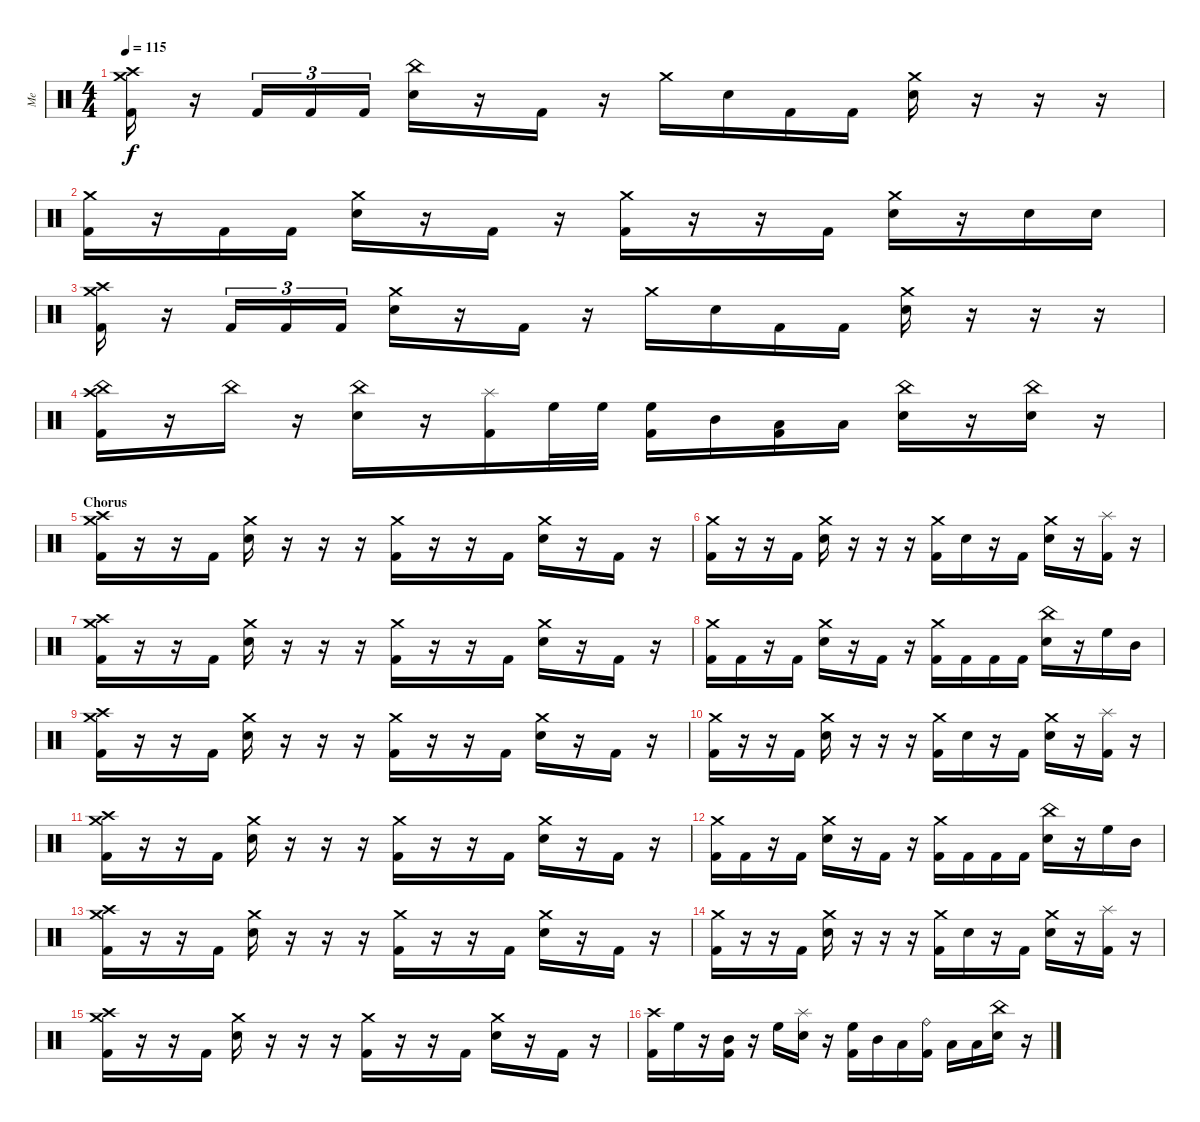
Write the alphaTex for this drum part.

\track ("Me" "Me") {instrument percussion}
\staff {score}
\articulation defaults
\ts (4 4)
\tempo 115
\clef neutral
\ks c
("Crash high (hit)" "Crash medium (hit)" "Kick (hit) 2").16{dy f} r.16 "Kick (hit) 2".16{tu (3 2)} "Kick (hit) 2".16{tu (3 2)} "Kick (hit) 2".16{tu (3 2)} ("China (hit)" "Electric Snare (hit)").16 r.16 "Kick (hit) 2".16 r.16 "Crash medium (hit)".16 "Electric Snare (hit)".16 "Kick (hit) 2".16 "Kick (hit) 2".16 ("Crash medium (hit)" "Electric Snare (hit)").16 r.16 r.16 r.16 |
("Crash medium (hit)" "Kick (hit) 2").16 r.16 "Kick (hit) 2".16 "Kick (hit) 2".16 ("Crash medium (hit)" "Electric Snare (hit)").16 r.16 "Kick (hit) 2".16 r.16 ("Crash medium (hit)" "Kick (hit) 2").16 r.16 r.16 "Kick (hit) 2".16 ("Crash medium (hit)" "Electric Snare (hit)").16 r.16 "Electric Snare (hit)".16 "Electric Snare (hit)".16 |
("Crash high (hit)" "Crash medium (hit)" "Kick (hit) 2").16 r.16 "Kick (hit) 2".16{tu (3 2)} "Kick (hit) 2".16{tu (3 2)} "Kick (hit) 2".16{tu (3 2)} ("Crash medium (hit)" "Electric Snare (hit)").16 r.16 "Kick (hit) 2".16 r.16 "Crash medium (hit)".16 "Electric Snare (hit)".16 "Kick (hit) 2".16 "Kick (hit) 2".16 ("Crash medium (hit)" "Electric Snare (hit)").16 r.16 r.16 r.16 |
("China (hit)" "Crash high (hit)" "Kick (hit) 2").16 r.16 "China (hit)".16 r.16 ("China (hit)" "Electric Snare (hit)").16 r.16 ("Splash (hit)" "Kick (hit) 2").16 "High Floor Tom (hit)".32 "High Floor Tom (hit)".32 ("High Floor Tom (hit)" "Kick (hit) 2").16 "Mid Tom (hit)".16 ("Low Tom (hit)" "Kick (hit) 2").16 "Low Tom (hit)".16 ("China (hit)" "Electric Snare (hit)").16 r.16 ("China (hit)" "Electric Snare (hit)").16 r.16 |
\section ("" "Chorus")
("Crash high (hit)" "Crash medium (hit)" "Kick (hit) 2").16 r.16 r.16 "Kick (hit) 2".16 ("Crash medium (hit)" "Electric Snare (hit)").16 r.16 r.16 r.16 ("Crash medium (hit)" "Kick (hit) 2").16 r.16 r.16 "Kick (hit) 2".16 ("Crash medium (hit)" "Electric Snare (hit)").16 r.16 "Kick (hit) 2".16 r.16 |
("Crash medium (hit)" "Kick (hit) 2").16 r.16 r.16 "Kick (hit) 2".16 ("Crash medium (hit)" "Electric Snare (hit)").16 r.16 r.16 r.16 ("Crash medium (hit)" "Kick (hit) 2").16 "Electric Snare (hit)".16 r.16 "Kick (hit) 2".16 ("Crash medium (hit)" "Electric Snare (hit)").16 r.16 ("Splash (hit)" "Kick (hit) 2").16 r.16 |
("Crash high (hit)" "Crash medium (hit)" "Kick (hit) 2").16 r.16 r.16 "Kick (hit) 2".16 ("Crash medium (hit)" "Electric Snare (hit)").16 r.16 r.16 r.16 ("Crash medium (hit)" "Kick (hit) 2").16 r.16 r.16 "Kick (hit) 2".16 ("Crash medium (hit)" "Electric Snare (hit)").16 r.16 "Kick (hit) 2".16 r.16 |
("Crash medium (hit)" "Kick (hit) 2").16 "Kick (hit) 2".16 r.16 "Kick (hit) 2".16 ("Crash medium (hit)" "Electric Snare (hit)").16 r.16 "Kick (hit) 2".16 r.16 ("Crash medium (hit)" "Kick (hit) 2").16 "Kick (hit) 2".16 "Kick (hit) 2".16 "Kick (hit) 2".16 ("China (hit)" "Electric Snare (hit)").16 r.16 "High Floor Tom (hit)".16 "Mid Tom (hit)".16 |
("Crash high (hit)" "Crash medium (hit)" "Kick (hit) 2").16 r.16 r.16 "Kick (hit) 2".16 ("Crash medium (hit)" "Electric Snare (hit)").16 r.16 r.16 r.16 ("Crash medium (hit)" "Kick (hit) 2").16 r.16 r.16 "Kick (hit) 2".16 ("Crash medium (hit)" "Electric Snare (hit)").16 r.16 "Kick (hit) 2".16 r.16 |
("Crash medium (hit)" "Kick (hit) 2").16 r.16 r.16 "Kick (hit) 2".16 ("Crash medium (hit)" "Electric Snare (hit)").16 r.16 r.16 r.16 ("Crash medium (hit)" "Kick (hit) 2").16 "Electric Snare (hit)".16 r.16 "Kick (hit) 2".16 ("Crash medium (hit)" "Electric Snare (hit)").16 r.16 ("Splash (hit)" "Kick (hit) 2").16 r.16 |
("Crash high (hit)" "Crash medium (hit)" "Kick (hit) 2").16 r.16 r.16 "Kick (hit) 2".16 ("Crash medium (hit)" "Electric Snare (hit)").16 r.16 r.16 r.16 ("Crash medium (hit)" "Kick (hit) 2").16 r.16 r.16 "Kick (hit) 2".16 ("Crash medium (hit)" "Electric Snare (hit)").16 r.16 "Kick (hit) 2".16 r.16 |
("Crash medium (hit)" "Kick (hit) 2").16 "Kick (hit) 2".16 r.16 "Kick (hit) 2".16 ("Crash medium (hit)" "Electric Snare (hit)").16 r.16 "Kick (hit) 2".16 r.16 ("Crash medium (hit)" "Kick (hit) 2").16 "Kick (hit) 2".16 "Kick (hit) 2".16 "Kick (hit) 2".16 ("China (hit)" "Electric Snare (hit)").16 r.16 "High Floor Tom (hit)".16 "Mid Tom (hit)".16 |
("Crash high (hit)" "Crash medium (hit)" "Kick (hit) 2").16 r.16 r.16 "Kick (hit) 2".16 ("Crash medium (hit)" "Electric Snare (hit)").16 r.16 r.16 r.16 ("Crash medium (hit)" "Kick (hit) 2").16 r.16 r.16 "Kick (hit) 2".16 ("Crash medium (hit)" "Electric Snare (hit)").16 r.16 "Kick (hit) 2".16 r.16 |
("Crash medium (hit)" "Kick (hit) 2").16 r.16 r.16 "Kick (hit) 2".16 ("Crash medium (hit)" "Electric Snare (hit)").16 r.16 r.16 r.16 ("Crash medium (hit)" "Kick (hit) 2").16 "Electric Snare (hit)".16 r.16 "Kick (hit) 2".16 ("Crash medium (hit)" "Electric Snare (hit)").16 r.16 ("Splash (hit)" "Kick (hit) 2").16 r.16 |
("Crash high (hit)" "Crash medium (hit)" "Kick (hit) 2").16 r.16 r.16 "Kick (hit) 2".16 ("Crash medium (hit)" "Electric Snare (hit)").16 r.16 r.16 r.16 ("Crash medium (hit)" "Kick (hit) 2").16 r.16 r.16 "Kick (hit) 2".16 ("Crash medium (hit)" "Electric Snare (hit)").16 r.16 "Kick (hit) 2".16 r.16 |
("Crash high (hit)" "Kick (hit) 2").16 "High Floor Tom (hit)".16 r.16 ("Mid Tom (hit)" "Kick (hit) 2").16 r.16 "High Floor Tom (hit)".16 ("Splash (hit)" "Electric Snare (hit)").16 r.16 ("High Floor Tom (hit)" "Kick (hit) 2").16 "Mid Tom (hit)".16 "Low Tom (hit)".16 ("Ride (bell)" "Kick (hit) 2").16 "Low Tom (hit)".16 "Low Floor Tom (hit)".16 ("China (hit)" "Electric Snare (hit)").16 r.16
